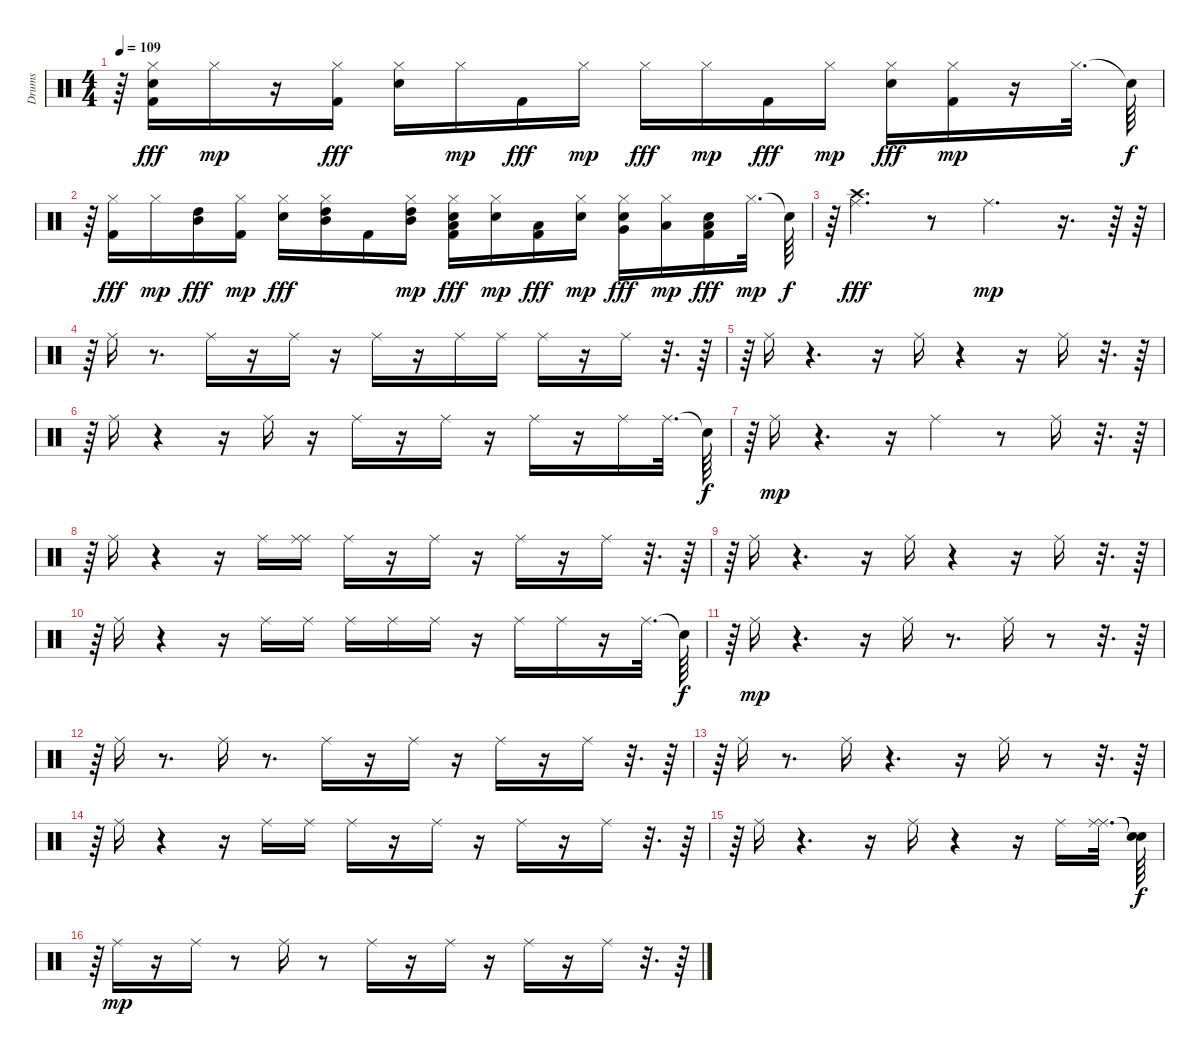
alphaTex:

\track ("Drums" "Drums") {instrument percussion}
\staff {score}
\articulation defaults
\ts (4 4)
\tempo 109
\clef neutral
\ks c
r.64{dy f} ("Hi-Hat (closed)" "Kick (hit) 2" "Metronome (bell)").16{dy fff} "Hi-Hat (closed)".16{dy mp} r.16 ("Hi-Hat (closed)" "Kick (hit) 2").16{dy fff} ("Hi-Hat (closed)" "Snare (hit) 2").16 "Hi-Hat (closed)".16{dy mp} "Kick (hit) 2".16{dy fff} "Hi-Hat (closed)".16{dy mp} "Hi-Hat (closed)".16{dy fff} "Hi-Hat (closed)".16{dy mp} "Kick (hit) 2".16{dy fff} "Hi-Hat (closed)".16{dy mp} ("Snare (hit) 2" "Hi-Hat (closed)").16{dy fff} ("Kick (hit) 2" "Hi-Hat (closed)").16{dy mp} r.16 "Hi-Hat (closed)".32{d} "Snare (hit)"{t}.64{dy f} |
r.64 ("Kick (hit) 2" "Hi-Hat (closed)").16{dy fff} "Hi-Hat (closed)".16{dy mp} ("High Tom (hit)" "Mid Tom (hit)").16{dy fff} ("Kick (hit) 2" "Hi-Hat (closed)").16{dy mp} ("Hi-Hat (closed)" "Snare (hit) 2").16{dy fff} ("High Tom (hit)" "Hi-Hat (closed)" "Mid Tom (hit)").16 "Kick (hit) 2".16 ("Mid Tom (hit)" "High Tom (hit)" "Hi-Hat (closed)").16{dy mp} ("Low Tom (hit)" "Kick (hit) 2" "Snare (hit) 2" "Hi-Hat (closed)").16{dy fff} ("Snare (hit) 2" "Hi-Hat (closed)").16{dy mp} ("Low Tom (hit)" "Kick (hit) 2").16{dy fff} ("Snare (hit) 2" "Hi-Hat (closed)").16{dy mp} ("Very Low Tom (hit)" "Snare (hit) 2" "Hi-Hat (closed)").16{dy fff} ("Low Floor Tom (hit)" "Hi-Hat (closed)").16{dy mp} ("Low Floor Tom (hit)" "Kick (hit) 2" "Snare (hit) 2").16{dy fff} "Hi-Hat (closed)".32{d dy mp} "Snare (hit)"{t}.64{dy f} |
r.64 ("Ride (middle)" "Crash high (hit)").4{d dy fff} r.8 "Ride (middle)".4{d dy mp} r.16{d} r.64 r.64 |
r.64 "Ride (middle)".16 r.8{d} "Ride (middle)".16 r.16 "Ride (middle)".16 r.16 "Ride (middle)".16 r.16 "Ride (middle)".16 "Ride (middle)".16 "Ride (middle)".16 r.16 "Ride (middle)".16 r.32{d} r.64 |
r.64 "Ride (middle)".16 r.4{d} r.16 "Ride (middle)".16 r.4 r.16 "Ride (middle)".16 r.32{d} r.64 |
r.64 "Ride (middle)".16 r.4 r.16 "Ride (middle)".16 r.16 "Ride (middle)".16 r.16 "Ride (middle)".16 r.16 "Ride (middle)".16 r.16 "Ride (middle)".16 "Ride (middle)".32{d} "Snare (hit)"{t}.64{dy f} |
r.64 "Ride (middle)".16{dy mp} r.4{d} r.16 "Ride (middle)".4 r.8 "Ride (middle)".16 r.32{d} r.64 |
r.64 "Ride (middle)".16 r.4 r.16 "Ride (middle)".16 ("Ride (middle)" "Ride (middle)").16 "Ride (middle)".16 r.16 "Ride (middle)".16 r.16 "Ride (middle)".16 r.16 "Ride (middle)".16 r.32{d} r.64 |
r.64 "Ride (middle)".16 r.4{d} r.16 "Ride (middle)".16 r.4 r.16 "Ride (middle)".16 r.32{d} r.64 |
r.64 "Ride (middle)".16 r.4 r.16 "Ride (middle)".16 "Ride (middle)".16 "Ride (middle)".16 "Ride (middle)".16 "Ride (middle)".16 r.16 "Ride (middle)".16 "Ride (middle)".16 r.16 "Ride (middle)".32{d} "Snare (hit)"{t}.64{dy f} |
r.64 "Ride (middle)".16{dy mp} r.4{d} r.16 "Ride (middle)".16 r.8{d} "Ride (middle)".16 r.8 r.32{d} r.64 |
r.64 "Ride (middle)".16 r.8{d} "Ride (middle)".16 r.8{d} "Ride (middle)".16 r.16 "Ride (middle)".16 r.16 "Ride (middle)".16 r.16 "Ride (middle)".16 r.32{d} r.64 |
r.64 "Ride (middle)".16 r.8{d} "Ride (middle)".16 r.4{d} r.16 "Ride (middle)".16 r.8 r.32{d} r.64 |
r.64 "Ride (middle)".16 r.4 r.16 "Ride (middle)".16 "Ride (middle)".16 "Ride (middle)".16 r.16 "Ride (middle)".16 r.16 "Ride (middle)".16 r.16 "Ride (middle)".16 r.32{d} r.64 |
r.64 "Ride (middle)".16 r.4{d} r.16 "Ride (middle)".16 r.4 r.16 "Ride (middle)".16 ("Ride (middle)" "Ride (middle)").32{d} ("Snare (hit)"{t} "Snare (hit)"{t}).64{dy f} |
r.64 "Ride (middle)".16{dy mp} r.16 "Ride (middle)".16 r.8 "Ride (middle)".16 r.8 "Ride (middle)".16 r.16 "Ride (middle)".16 r.16 "Ride (middle)".16 r.16 "Ride (middle)".16 r.32{d} r.64
